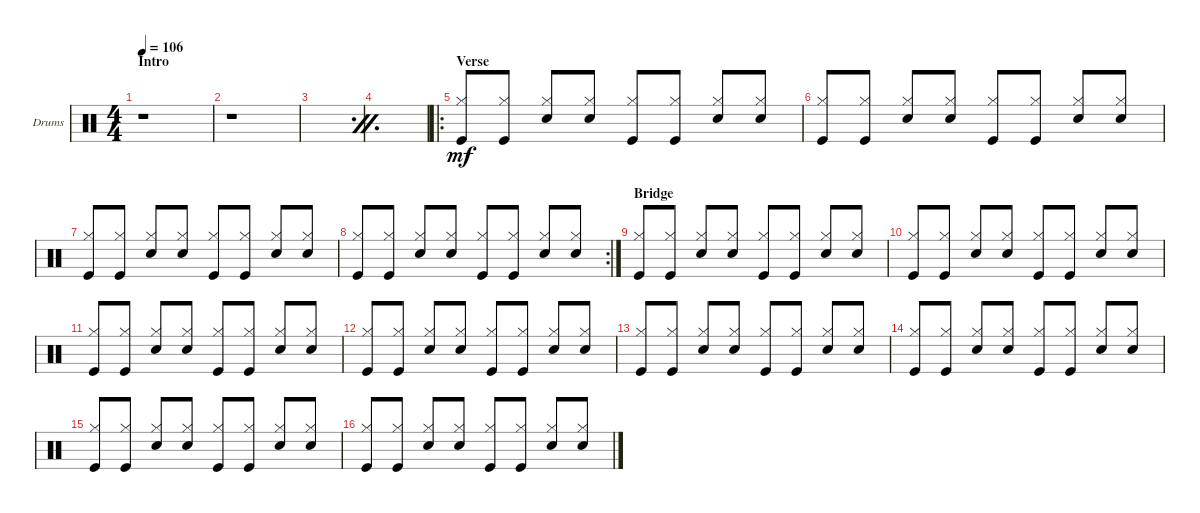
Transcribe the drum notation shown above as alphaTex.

\defaultSystemsLayout 4
\bracketExtendMode groupsimilarinstruments
\firstSystemTrackNameOrientation horizontal
\otherSystemsTrackNameOrientation horizontal
\track ("Drums" "Drums") {instrument percussion}
\staff {score}
\articulation defaults
\ts (4 4)
\section ("" "Intro")
\tempo 106
\clef neutral
\ks c
r.1{dy mf} |
r.1 |
\simile firstofdouble
|
\simile secondofdouble
|
\ro
\section ("" "Verse")
\simile none
("Hi-Hat (closed)" "Kick (hit)").8{beam invert} ("Hi-Hat (closed)" "Kick (hit)").8 ("Hi-Hat (closed)" "Snare (hit) 2").8{beam invert} ("Hi-Hat (closed)" "Snare (hit) 2").8 ("Hi-Hat (closed)" "Kick (hit)").8{beam invert} ("Hi-Hat (closed)" "Kick (hit)").8 ("Hi-Hat (closed)" "Snare (hit) 2").8{beam invert} ("Hi-Hat (closed)" "Snare (hit) 2").8 |
("Hi-Hat (closed)" "Kick (hit)").8{beam invert} ("Hi-Hat (closed)" "Kick (hit)").8 ("Hi-Hat (closed)" "Snare (hit) 2").8{beam invert} ("Hi-Hat (closed)" "Snare (hit) 2").8 ("Hi-Hat (closed)" "Kick (hit)").8{beam invert} ("Hi-Hat (closed)" "Kick (hit)").8 ("Hi-Hat (closed)" "Snare (hit) 2").8{beam invert} ("Hi-Hat (closed)" "Snare (hit) 2").8 |
("Hi-Hat (closed)" "Kick (hit)").8{beam invert} ("Hi-Hat (closed)" "Kick (hit)").8 ("Hi-Hat (closed)" "Snare (hit) 2").8{beam invert} ("Hi-Hat (closed)" "Snare (hit) 2").8 ("Hi-Hat (closed)" "Kick (hit)").8{beam invert} ("Hi-Hat (closed)" "Kick (hit)").8 ("Hi-Hat (closed)" "Snare (hit) 2").8{beam invert} ("Hi-Hat (closed)" "Snare (hit) 2").8 |
\rc 2
("Hi-Hat (closed)" "Kick (hit)").8{beam invert} ("Hi-Hat (closed)" "Kick (hit)").8 ("Hi-Hat (closed)" "Snare (hit) 2").8{beam invert} ("Hi-Hat (closed)" "Snare (hit) 2").8 ("Hi-Hat (closed)" "Kick (hit)").8{beam invert} ("Hi-Hat (closed)" "Kick (hit)").8 ("Hi-Hat (closed)" "Snare (hit) 2").8{beam invert} ("Hi-Hat (closed)" "Snare (hit) 2").8 |
\section ("" "Bridge")
("Hi-Hat (closed)" "Kick (hit)").8{beam invert} ("Hi-Hat (closed)" "Kick (hit)").8 ("Hi-Hat (closed)" "Snare (hit) 2").8{beam invert} ("Hi-Hat (closed)" "Snare (hit) 2").8 ("Hi-Hat (closed)" "Kick (hit)").8{beam invert} ("Hi-Hat (closed)" "Kick (hit)").8 ("Hi-Hat (closed)" "Snare (hit) 2").8{beam invert} ("Hi-Hat (closed)" "Snare (hit) 2").8 |
("Hi-Hat (closed)" "Kick (hit)").8{beam invert} ("Hi-Hat (closed)" "Kick (hit)").8 ("Hi-Hat (closed)" "Snare (hit) 2").8{beam invert} ("Hi-Hat (closed)" "Snare (hit) 2").8 ("Hi-Hat (closed)" "Kick (hit)").8{beam invert} ("Hi-Hat (closed)" "Kick (hit)").8 ("Hi-Hat (closed)" "Snare (hit) 2").8{beam invert} ("Hi-Hat (closed)" "Snare (hit) 2").8 |
("Hi-Hat (closed)" "Kick (hit)").8{beam invert} ("Hi-Hat (closed)" "Kick (hit)").8 ("Hi-Hat (closed)" "Snare (hit) 2").8{beam invert} ("Hi-Hat (closed)" "Snare (hit) 2").8 ("Hi-Hat (closed)" "Kick (hit)").8{beam invert} ("Hi-Hat (closed)" "Kick (hit)").8 ("Hi-Hat (closed)" "Snare (hit) 2").8{beam invert} ("Hi-Hat (closed)" "Snare (hit) 2").8 |
("Hi-Hat (closed)" "Kick (hit)").8{beam invert} ("Hi-Hat (closed)" "Kick (hit)").8 ("Hi-Hat (closed)" "Snare (hit) 2").8{beam invert} ("Hi-Hat (closed)" "Snare (hit) 2").8 ("Hi-Hat (closed)" "Kick (hit)").8{beam invert} ("Hi-Hat (closed)" "Kick (hit)").8 ("Hi-Hat (closed)" "Snare (hit) 2").8{beam invert} ("Hi-Hat (closed)" "Snare (hit) 2").8 |
("Hi-Hat (closed)" "Kick (hit)").8{beam invert} ("Hi-Hat (closed)" "Kick (hit)").8 ("Hi-Hat (closed)" "Snare (hit) 2").8{beam invert} ("Hi-Hat (closed)" "Snare (hit) 2").8 ("Hi-Hat (closed)" "Kick (hit)").8{beam invert} ("Hi-Hat (closed)" "Kick (hit)").8 ("Hi-Hat (closed)" "Snare (hit) 2").8{beam invert} ("Hi-Hat (closed)" "Snare (hit) 2").8 |
("Hi-Hat (closed)" "Kick (hit)").8{beam invert} ("Hi-Hat (closed)" "Kick (hit)").8 ("Hi-Hat (closed)" "Snare (hit) 2").8{beam invert} ("Hi-Hat (closed)" "Snare (hit) 2").8 ("Hi-Hat (closed)" "Kick (hit)").8{beam invert} ("Hi-Hat (closed)" "Kick (hit)").8 ("Hi-Hat (closed)" "Snare (hit) 2").8{beam invert} ("Hi-Hat (closed)" "Snare (hit) 2").8 |
("Hi-Hat (closed)" "Kick (hit)").8{beam invert} ("Hi-Hat (closed)" "Kick (hit)").8 ("Hi-Hat (closed)" "Snare (hit) 2").8{beam invert} ("Hi-Hat (closed)" "Snare (hit) 2").8 ("Hi-Hat (closed)" "Kick (hit)").8{beam invert} ("Hi-Hat (closed)" "Kick (hit)").8 ("Hi-Hat (closed)" "Snare (hit) 2").8{beam invert} ("Hi-Hat (closed)" "Snare (hit) 2").8 |
("Hi-Hat (closed)" "Kick (hit)").8{beam invert} ("Hi-Hat (closed)" "Kick (hit)").8 ("Hi-Hat (closed)" "Snare (hit) 2").8{beam invert} ("Hi-Hat (closed)" "Snare (hit) 2").8 ("Hi-Hat (closed)" "Kick (hit)").8{beam invert} ("Hi-Hat (closed)" "Kick (hit)").8 ("Hi-Hat (closed)" "Snare (hit) 2").8{beam invert} ("Hi-Hat (closed)" "Snare (hit) 2").8
